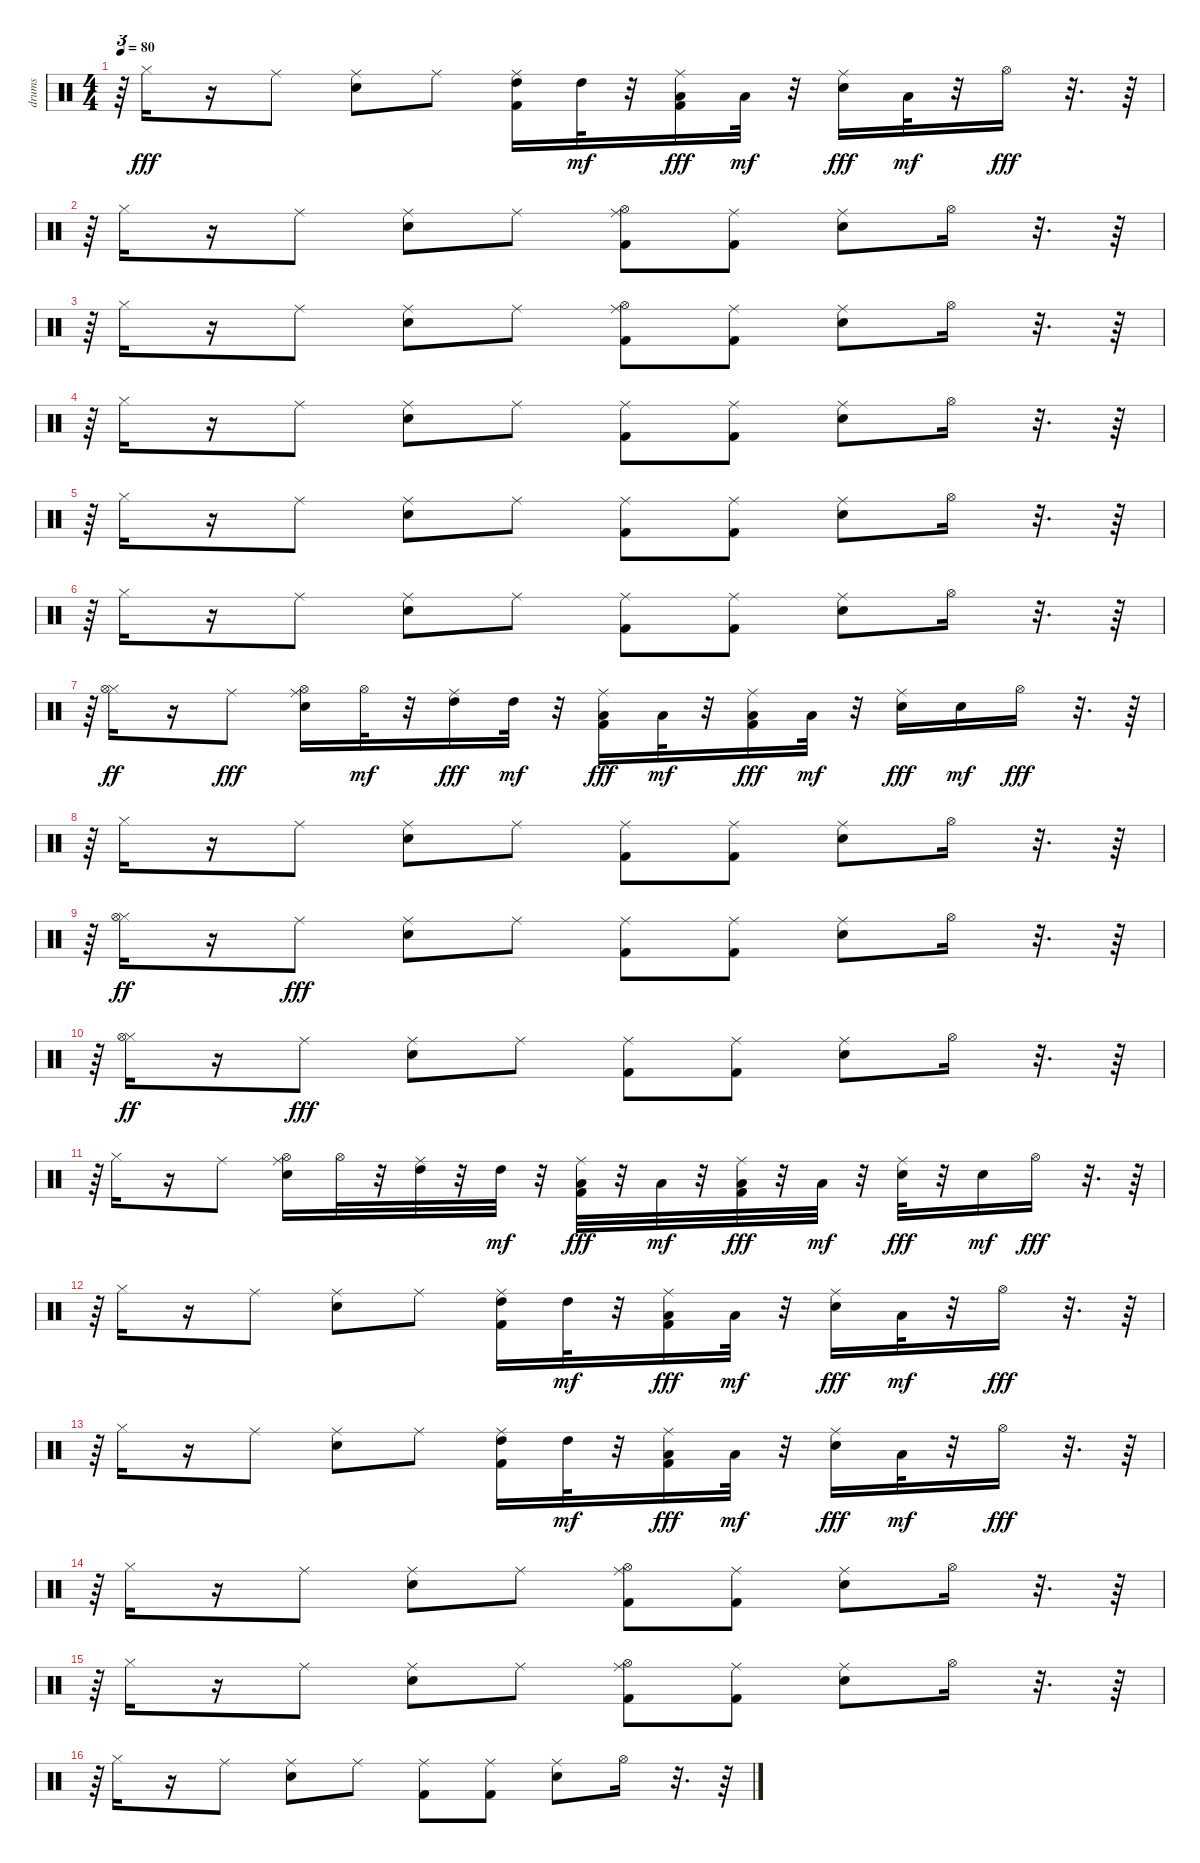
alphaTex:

\track ("drums               " "drums     ") {instrument percussion}
\staff {score}
\articulation defaults
\ts (4 4)
\tempo 80
\clef neutral
\ks c
r.64{tu (3 2) dy fff} "Hi-Hat (closed)".16 r.16 "Ride (middle)".8 ("Snare (hit) 2" "Ride (middle)").8 "Ride (middle)".8 ("Kick (hit) 2" "High Tom (hit)" "Ride (middle)").16 "High Tom (hit)".32{dy mf} r.32 ("Kick (hit) 2" "Low Tom (hit)" "Ride (middle)").16{dy fff} "Low Tom (hit)".32{dy mf} r.32 ("Snare (hit) 2" "Ride (middle)").16{dy fff} "Low Floor Tom (hit)".32{dy mf} r.32 "Hi-Hat (open)".16{dy fff} r.32{d} r.64 |
r.64{tu (3 2)} "Hi-Hat (closed)".16 r.16 "Ride (middle)".8 ("Snare (hit) 2" "Ride (middle)").8 "Ride (middle)".8 ("Kick (hit) 2" "Hi-Hat (open)" "Ride (middle)").8 ("Kick (hit) 2" "Ride (middle)").8 ("Snare (hit) 2" "Ride (middle)").8 "Hi-Hat (open)".16 r.32{d} r.64 |
r.64{tu (3 2)} "Hi-Hat (closed)".16 r.16 "Ride (middle)".8 ("Snare (hit) 2" "Ride (middle)").8 "Ride (middle)".8 ("Kick (hit) 2" "Hi-Hat (open)" "Ride (middle)").8 ("Kick (hit) 2" "Ride (middle)").8 ("Snare (hit) 2" "Ride (middle)").8 "Hi-Hat (open)".16 r.32{d} r.64 |
r.64{tu (3 2)} "Hi-Hat (closed)".16 r.16 "Ride (middle)".8 ("Snare (hit) 2" "Ride (middle)").8 "Ride (middle)".8 ("Kick (hit) 2" "Ride (middle)").8 ("Kick (hit) 2" "Ride (middle)").8 ("Snare (hit) 2" "Ride (middle)").8 "Hi-Hat (open)".16 r.32{d} r.64 |
r.64{tu (3 2)} "Hi-Hat (closed)".16 r.16 "Ride (middle)".8 ("Snare (hit) 2" "Ride (middle)").8 "Ride (middle)".8 ("Kick (hit) 2" "Ride (middle)").8 ("Kick (hit) 2" "Ride (middle)").8 ("Snare (hit) 2" "Ride (middle)").8 "Hi-Hat (open)".16 r.32{d} r.64 |
r.64{tu (3 2)} "Hi-Hat (closed)".16 r.16 "Ride (middle)".8 ("Snare (hit) 2" "Ride (middle)").8 "Ride (middle)".8 ("Kick (hit) 2" "Ride (middle)").8 ("Kick (hit) 2" "Ride (middle)").8 ("Snare (hit) 2" "Ride (middle)").8 "Hi-Hat (open)".16 r.32{d} r.64 |
r.64{tu (3 2)} ("Hi-Hat (closed)" "Hi-Hat (open)").16{dy ff} r.16 "Ride (middle)".8{dy fff} ("Snare (hit) 2" "Hi-Hat (open)" "Ride (middle)").16 "Hi-Hat (open)".32{dy mf} r.32 ("High Tom (hit)" "Ride (middle)").16{dy fff} "High Tom (hit)".32{dy mf} r.32 ("Kick (hit) 2" "Low Tom (hit)" "Ride (middle)").16{dy fff} "Low Tom (hit)".32{dy mf} r.32 ("Kick (hit) 2" "Low Floor Tom (hit)" "Ride (middle)").16{dy fff} "Low Floor Tom (hit)".32{dy mf} r.32 ("Snare (hit) 2" "Ride (middle)").16{dy fff} "Snare (hit) 2".16{dy mf} "Hi-Hat (open)".16{dy fff} r.32{d} r.64 |
r.64{tu (3 2)} "Hi-Hat (closed)".16 r.16 "Ride (middle)".8 ("Snare (hit) 2" "Ride (middle)").8 "Ride (middle)".8 ("Kick (hit) 2" "Ride (middle)").8 ("Kick (hit) 2" "Ride (middle)").8 ("Snare (hit) 2" "Ride (middle)").8 "Hi-Hat (open)".16 r.32{d} r.64 |
r.64{tu (3 2)} ("Hi-Hat (closed)" "Hi-Hat (open)").16{dy ff} r.16 "Ride (middle)".8{dy fff} ("Snare (hit) 2" "Ride (middle)").8 "Ride (middle)".8 ("Kick (hit) 2" "Ride (middle)").8 ("Kick (hit) 2" "Ride (middle)").8 ("Snare (hit) 2" "Ride (middle)").8 "Hi-Hat (open)".16 r.32{d} r.64 |
r.64{tu (3 2)} ("Hi-Hat (closed)" "Hi-Hat (open)").16{dy ff} r.16 "Ride (middle)".8{dy fff} ("Snare (hit) 2" "Ride (middle)").8 "Ride (middle)".8 ("Kick (hit) 2" "Ride (middle)").8 ("Kick (hit) 2" "Ride (middle)").8 ("Snare (hit) 2" "Ride (middle)").8 "Hi-Hat (open)".16 r.32{d} r.64 |
r.64{tu (3 2)} "Hi-Hat (closed)".16 r.16 "Ride (middle)".8 ("Snare (hit) 2" "Hi-Hat (open)" "Ride (middle)").16 "Hi-Hat (open)".32 r.32 ("High Tom (hit)" "Ride (middle)").32 r.32 "High Tom (hit)".32{dy mf} r.32 ("Kick (hit) 2" "Low Tom (hit)" "Ride (middle)").32{dy fff} r.32 "Low Tom (hit)".32{dy mf} r.32 ("Kick (hit) 2" "Low Floor Tom (hit)" "Ride (middle)").32{dy fff} r.32 "Low Floor Tom (hit)".32{dy mf} r.32 ("Snare (hit) 2" "Ride (middle)").32{dy fff} r.32 "Snare (hit) 2".16{dy mf} "Hi-Hat (open)".16{dy fff} r.32{d} r.64 |
r.64{tu (3 2)} "Hi-Hat (closed)".16 r.16 "Ride (middle)".8 ("Snare (hit) 2" "Ride (middle)").8 "Ride (middle)".8 ("Kick (hit) 2" "High Tom (hit)" "Ride (middle)").16 "High Tom (hit)".32{dy mf} r.32 ("Kick (hit) 2" "Low Tom (hit)" "Ride (middle)").16{dy fff} "Low Tom (hit)".32{dy mf} r.32 ("Snare (hit) 2" "Ride (middle)").16{dy fff} "Low Floor Tom (hit)".32{dy mf} r.32 "Hi-Hat (open)".16{dy fff} r.32{d} r.64 |
r.64{tu (3 2)} "Hi-Hat (closed)".16 r.16 "Ride (middle)".8 ("Snare (hit) 2" "Ride (middle)").8 "Ride (middle)".8 ("Kick (hit) 2" "High Tom (hit)" "Ride (middle)").16 "High Tom (hit)".32{dy mf} r.32 ("Kick (hit) 2" "Low Tom (hit)" "Ride (middle)").16{dy fff} "Low Tom (hit)".32{dy mf} r.32 ("Snare (hit) 2" "Ride (middle)").16{dy fff} "Low Floor Tom (hit)".32{dy mf} r.32 "Hi-Hat (open)".16{dy fff} r.32{d} r.64 |
r.64{tu (3 2)} "Hi-Hat (closed)".16 r.16 "Ride (middle)".8 ("Snare (hit) 2" "Ride (middle)").8 "Ride (middle)".8 ("Kick (hit) 2" "Hi-Hat (open)" "Ride (middle)").8 ("Kick (hit) 2" "Ride (middle)").8 ("Snare (hit) 2" "Ride (middle)").8 "Hi-Hat (open)".16 r.32{d} r.64 |
r.64{tu (3 2)} "Hi-Hat (closed)".16 r.16 "Ride (middle)".8 ("Snare (hit) 2" "Ride (middle)").8 "Ride (middle)".8 ("Kick (hit) 2" "Hi-Hat (open)" "Ride (middle)").8 ("Kick (hit) 2" "Ride (middle)").8 ("Snare (hit) 2" "Ride (middle)").8 "Hi-Hat (open)".16 r.32{d} r.64 |
r.64{tu (3 2)} "Hi-Hat (closed)".16 r.16 "Ride (middle)".8 ("Snare (hit) 2" "Ride (middle)").8 "Ride (middle)".8 ("Kick (hit) 2" "Ride (middle)").8 ("Kick (hit) 2" "Ride (middle)").8 ("Snare (hit) 2" "Ride (middle)").8 "Hi-Hat (open)".16 r.32{d} r.64
